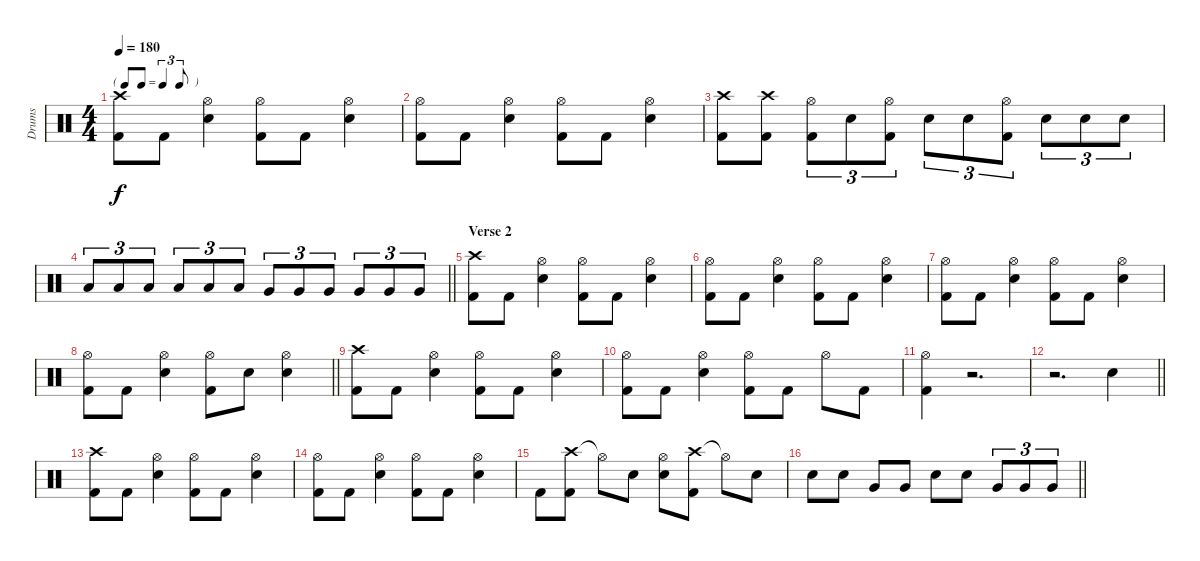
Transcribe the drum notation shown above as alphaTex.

\track ("Drums" "Drums") {instrument percussion}
\staff {score}
\articulation defaults
\ts (4 4)
\tf triplet8th
\tempo 180
\clef neutral
\ks c
("Crash high (hit)" "Kick (hit) 2").8{dy f} "Kick (hit) 2".8 ("Hi-Hat (open)" "Snare (hit) 2").4 ("Hi-Hat (open)" "Kick (hit) 2").8 "Kick (hit) 2".8 ("Hi-Hat (open)" "Snare (hit) 2").4 |
("Hi-Hat (open)" "Kick (hit) 2").8 "Kick (hit) 2".8 ("Hi-Hat (open)" "Snare (hit) 2").4 ("Hi-Hat (open)" "Kick (hit) 2").8 "Kick (hit) 2".8 ("Hi-Hat (open)" "Snare (hit) 2").4 |
("Crash high (hit)" "Kick (hit) 2").8 ("Crash high (hit)" "Kick (hit) 2").8 ("Hi-Hat (open)" "Kick (hit) 2").8{tu (3 2)} "Snare (hit) 2".8{tu (3 2)} ("Hi-Hat (open)" "Kick (hit) 2").8{tu (3 2)} "Snare (hit) 2".8{tu (3 2)} "Snare (hit) 2".8{tu (3 2)} ("Hi-Hat (open)" "Kick (hit) 2").8{tu (3 2)} "Snare (hit) 2".8{tu (3 2)} "Snare (hit) 2".8{tu (3 2)} "Snare (hit) 2".8{tu (3 2)} |
\barLineRight lightlight "Low Tom (hit)".8{tu (3 2)} "Low Tom (hit)".8{tu (3 2)} "Low Tom (hit)".8{tu (3 2)} "Low Tom (hit)".8{tu (3 2)} "Low Tom (hit)".8{tu (3 2)} "Low Tom (hit)".8{tu (3 2)} "Very Low Tom (hit)".8{tu (3 2)} "Very Low Tom (hit)".8{tu (3 2)} "Very Low Tom (hit)".8{tu (3 2)} "Very Low Tom (hit)".8{tu (3 2)} "Very Low Tom (hit)".8{tu (3 2)} "Very Low Tom (hit)".8{tu (3 2)}
|
\section ("" "Verse 2")
("Crash high (hit)" "Kick (hit) 2").8 "Kick (hit) 2".8 ("Hi-Hat (open)" "Snare (hit) 2").4 ("Hi-Hat (open)" "Kick (hit) 2").8 "Kick (hit) 2".8 ("Hi-Hat (open)" "Snare (hit) 2").4 |
("Hi-Hat (open)" "Kick (hit) 2").8 "Kick (hit) 2".8 ("Hi-Hat (open)" "Snare (hit) 2").4 ("Hi-Hat (open)" "Kick (hit) 2").8 "Kick (hit) 2".8 ("Hi-Hat (open)" "Snare (hit) 2").4 |
("Hi-Hat (open)" "Kick (hit) 2").8 "Kick (hit) 2".8 ("Hi-Hat (open)" "Snare (hit) 2").4 ("Hi-Hat (open)" "Kick (hit) 2").8 "Kick (hit) 2".8 ("Hi-Hat (open)" "Snare (hit) 2").4 |
\barLineRight lightlight
("Hi-Hat (open)" "Kick (hit) 2").8 "Kick (hit) 2".8 ("Hi-Hat (open)" "Snare (hit) 2").4 ("Hi-Hat (open)" "Kick (hit) 2").8 "Snare (hit) 2".8 ("Hi-Hat (open)" "Snare (hit) 2").4 |
("Crash high (hit)" "Kick (hit) 2").8 "Kick (hit) 2".8 ("Hi-Hat (open)" "Snare (hit) 2").4 ("Hi-Hat (open)" "Kick (hit) 2").8 "Kick (hit) 2".8 ("Hi-Hat (open)" "Snare (hit) 2").4 |
("Hi-Hat (open)" "Kick (hit) 2").8 "Kick (hit) 2".8 ("Hi-Hat (open)" "Snare (hit) 2").4 ("Hi-Hat (open)" "Kick (hit) 2").8 "Kick (hit) 2".8 "Hi-Hat (open)".8 "Kick (hit) 2".8 |
("Hi-Hat (open)" "Kick (hit) 2").4 r.2{d} |
\barLineRight lightlight
r.2{d} "Snare (hit) 2".4 |
("Crash high (hit)" "Kick (hit) 2").8 "Kick (hit) 2".8 ("Hi-Hat (open)" "Snare (hit) 2").4 ("Hi-Hat (open)" "Kick (hit) 2").8 "Kick (hit) 2".8 ("Hi-Hat (open)" "Snare (hit) 2").4 |
("Hi-Hat (open)" "Kick (hit) 2").8 "Kick (hit) 2".8 ("Hi-Hat (open)" "Snare (hit) 2").4 ("Hi-Hat (open)" "Kick (hit) 2").8 "Kick (hit) 2".8 ("Hi-Hat (open)" "Snare (hit) 2").4 |
"Kick (hit) 2".8 ("Crash high (hit)" "Kick (hit) 2").8 "Hi-Hat (open)"{t}.8 "Snare (hit) 2".8 ("Hi-Hat (open)" "Snare (hit) 2").8 ("Crash high (hit)" "Kick (hit) 2").8 "Hi-Hat (open)"{t}.8 "Snare (hit) 2".8 |
\barLineRight lightlight "Snare (hit) 2".8 "Snare (hit) 2".8 "Very Low Tom (hit)".8 "Very Low Tom (hit)".8 "Snare (hit) 2".8 "Snare (hit) 2".8 "Very Low Tom (hit)".8{tu (3 2)} "Very Low Tom (hit)".8{tu (3 2)} "Very Low Tom (hit)".8{tu (3 2)}
